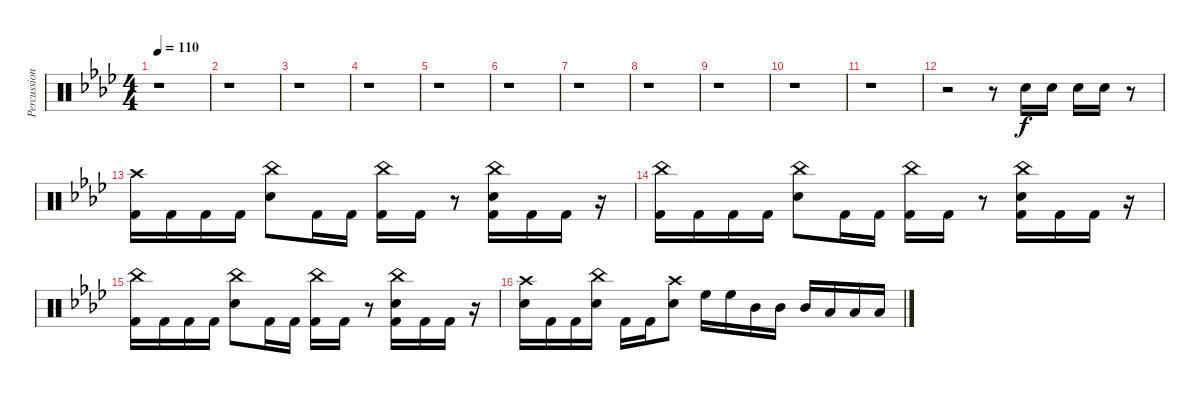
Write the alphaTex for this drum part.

\track ("Percussions" "Percussion") {instrument percussion}
\staff {score}
\articulation defaults
\ts (4 4)
\tempo 110
\clef neutral
\ks fminor
r.1{dy f} |
r.1 |
r.1 |
r.1 |
r.1 |
r.1 |
r.1 |
r.1 |
r.1 |
r.1 |
r.1 |
r.2 r.8 "Snare (hit) 2".16 "Snare (hit) 2".16 "Snare (hit) 2".16 "Snare (hit) 2".16 r.8 |
("Crash high (hit)" "Kick (hit) 2").16 "Kick (hit) 2".16 "Kick (hit) 2".16 "Kick (hit) 2".16 ("China (hit)" "Snare (hit) 2").8 "Kick (hit) 2".16 "Kick (hit) 2".16 ("China (hit)" "Kick (hit) 2").16 "Kick (hit) 2".16 r.8 ("China (hit)" "Snare (hit) 2" "Kick (hit) 2").16 "Kick (hit) 2".16 "Kick (hit) 2".16 r.16 |
("China (hit)" "Kick (hit) 2").16 "Kick (hit) 2".16 "Kick (hit) 2".16 "Kick (hit) 2".16 ("China (hit)" "Snare (hit) 2").8 "Kick (hit) 2".16 "Kick (hit) 2".16 ("China (hit)" "Kick (hit) 2").16 "Kick (hit) 2".16 r.8 ("China (hit)" "Snare (hit) 2" "Kick (hit) 2").16 "Kick (hit) 2".16 "Kick (hit) 2".16 r.16 |
("China (hit)" "Kick (hit) 2").16 "Kick (hit) 2".16 "Kick (hit) 2".16 "Kick (hit) 2".16 ("China (hit)" "Snare (hit) 2").8 "Kick (hit) 2".16 "Kick (hit) 2".16 ("China (hit)" "Kick (hit) 2").16 "Kick (hit) 2".16 r.8 ("China (hit)" "Snare (hit) 2" "Kick (hit) 2").16 "Kick (hit) 2".16 "Kick (hit) 2".16 r.16 |
("Crash high (hit)" "Snare (hit) 2").16 "Kick (hit) 2".16 "Kick (hit) 2".16 ("China (hit)" "Snare (hit) 2").16 "Kick (hit) 2".16 "Kick (hit) 2".16 ("Crash high (hit)" "Snare (hit) 2").8 "High Floor Tom (hit)".16 "High Floor Tom (hit)".16 "Mid Tom (hit)".16 "Mid Tom (hit)".16 "Mid Tom (hit)".16 "Low Tom (hit)".16 "Low Tom (hit)".16 "Low Tom (hit)".16
